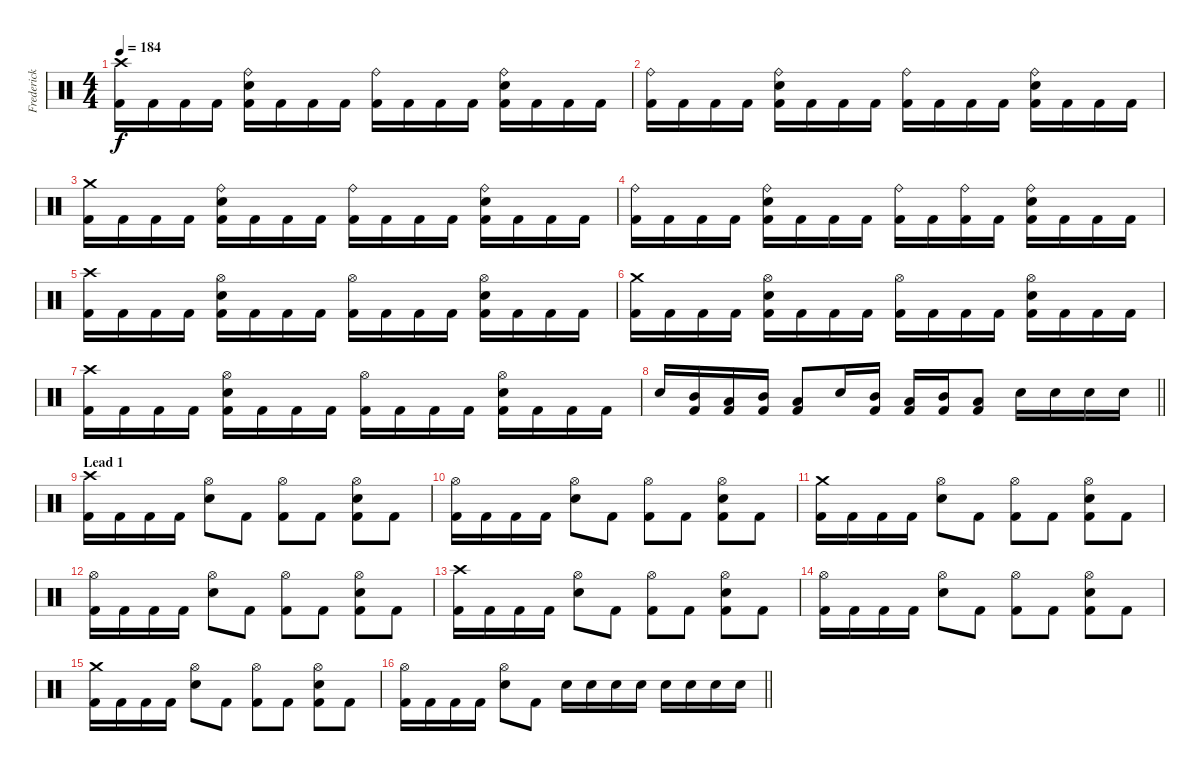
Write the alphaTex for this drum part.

\track ("Frederick Ehmke" "Frederick ") {instrument percussion}
\staff {score}
\articulation defaults
\ts (4 4)
\tempo 184
\clef neutral
\ks c
("Kick (hit) 2" "Crash high (hit)").16{dy f} "Kick (hit) 2".16 "Kick (hit) 2".16 "Kick (hit) 2".16 ("Electric Snare (hit)" "Kick (hit) 2" "Ride (bell)").16 "Kick (hit) 2".16 "Kick (hit) 2".16 "Kick (hit) 2".16 ("Kick (hit) 2" "Ride (bell)").16 "Kick (hit) 2".16 "Kick (hit) 2".16 "Kick (hit) 2".16 ("Electric Snare (hit)" "Kick (hit) 2" "Ride (bell)").16 "Kick (hit) 2".16 "Kick (hit) 2".16 "Kick (hit) 2".16 |
("Kick (hit) 2" "Ride (bell)").16 "Kick (hit) 2".16 "Kick (hit) 2".16 "Kick (hit) 2".16 ("Electric Snare (hit)" "Kick (hit) 2" "Ride (bell)").16 "Kick (hit) 2".16 "Kick (hit) 2".16 "Kick (hit) 2".16 ("Kick (hit) 2" "Ride (bell)").16 "Kick (hit) 2".16 "Kick (hit) 2".16 "Kick (hit) 2".16 ("Electric Snare (hit)" "Kick (hit) 2" "Ride (bell)").16 "Kick (hit) 2".16 "Kick (hit) 2".16 "Kick (hit) 2".16 |
("Kick (hit) 2" "Crash medium (hit)").16 "Kick (hit) 2".16 "Kick (hit) 2".16 "Kick (hit) 2".16 ("Electric Snare (hit)" "Kick (hit) 2" "Ride (bell)").16 "Kick (hit) 2".16 "Kick (hit) 2".16 "Kick (hit) 2".16 ("Kick (hit) 2" "Ride (bell)").16 "Kick (hit) 2".16 "Kick (hit) 2".16 "Kick (hit) 2".16 ("Electric Snare (hit)" "Kick (hit) 2" "Ride (bell)").16 "Kick (hit) 2".16 "Kick (hit) 2".16 "Kick (hit) 2".16 |
("Kick (hit) 2" "Ride (bell)").16 "Kick (hit) 2".16 "Kick (hit) 2".16 "Kick (hit) 2".16 ("Electric Snare (hit)" "Kick (hit) 2" "Ride (bell)").16 "Kick (hit) 2".16 "Kick (hit) 2".16 "Kick (hit) 2".16 ("Kick (hit) 2" "Ride (bell)").16 "Kick (hit) 2".16 ("Kick (hit) 2" "Ride (bell)").16 "Kick (hit) 2".16 ("Electric Snare (hit)" "Kick (hit) 2" "Ride (bell)").16 "Kick (hit) 2".16 "Kick (hit) 2".16 "Kick (hit) 2".16 |
("Kick (hit) 2" "Crash high (hit)").16 "Kick (hit) 2".16 "Kick (hit) 2".16 "Kick (hit) 2".16 ("Electric Snare (hit)" "Kick (hit) 2" "Hi-Hat (open)").16 "Kick (hit) 2".16 "Kick (hit) 2".16 "Kick (hit) 2".16 ("Kick (hit) 2" "Hi-Hat (open)").16 "Kick (hit) 2".16 "Kick (hit) 2".16 "Kick (hit) 2".16 ("Electric Snare (hit)" "Kick (hit) 2" "Hi-Hat (open)").16 "Kick (hit) 2".16 "Kick (hit) 2".16 "Kick (hit) 2".16 |
("Kick (hit) 2" "Crash medium (hit)").16 "Kick (hit) 2".16 "Kick (hit) 2".16 "Kick (hit) 2".16 ("Electric Snare (hit)" "Kick (hit) 2" "Hi-Hat (open)").16 "Kick (hit) 2".16 "Kick (hit) 2".16 "Kick (hit) 2".16 ("Kick (hit) 2" "Hi-Hat (open)").16 "Kick (hit) 2".16 "Kick (hit) 2".16 "Kick (hit) 2".16 ("Electric Snare (hit)" "Kick (hit) 2" "Hi-Hat (open)").16 "Kick (hit) 2".16 "Kick (hit) 2".16 "Kick (hit) 2".16 |
("Kick (hit) 2" "Crash high (hit)").16 "Kick (hit) 2".16 "Kick (hit) 2".16 "Kick (hit) 2".16 ("Electric Snare (hit)" "Kick (hit) 2" "Hi-Hat (open)").16 "Kick (hit) 2".16 "Kick (hit) 2".16 "Kick (hit) 2".16 ("Kick (hit) 2" "Hi-Hat (open)").16 "Kick (hit) 2".16 "Kick (hit) 2".16 "Kick (hit) 2".16 ("Electric Snare (hit)" "Kick (hit) 2" "Hi-Hat (open)").16 "Kick (hit) 2".16 "Kick (hit) 2".16 "Kick (hit) 2".16 |
\barLineRight lightlight "Electric Snare (hit)".16
("Kick (hit) 2" "Mid Tom (hit)").16 ("Kick (hit) 2" "Low Floor Tom (hit)").16 ("Kick (hit) 2" "Mid Tom (hit)").16 ("Kick (hit) 2" "Low Floor Tom (hit)").8 "Electric Snare (hit)".16 ("Kick (hit) 2" "Mid Tom (hit)").16 ("Kick (hit) 2" "Low Floor Tom (hit)").16 ("Kick (hit) 2" "Mid Tom (hit)").16 ("Kick (hit) 2" "Low Floor Tom (hit)").8 "Electric Snare (hit)".16 "Electric Snare (hit)".16 "Electric Snare (hit)".16 "Electric Snare (hit)".16 |
\section ("" "Lead 1")
("Kick (hit) 2" "Crash high (hit)").16 "Kick (hit) 2".16 "Kick (hit) 2".16 "Kick (hit) 2".16 ("Electric Snare (hit)" "Hi-Hat (open)").8 "Kick (hit) 2".8 ("Kick (hit) 2" "Hi-Hat (open)").8 "Kick (hit) 2".8 ("Electric Snare (hit)" "Kick (hit) 2" "Hi-Hat (open)").8 "Kick (hit) 2".8 |
("Kick (hit) 2" "Hi-Hat (open)").16 "Kick (hit) 2".16 "Kick (hit) 2".16 "Kick (hit) 2".16 ("Electric Snare (hit)" "Hi-Hat (open)").8 "Kick (hit) 2".8 ("Kick (hit) 2" "Hi-Hat (open)").8 "Kick (hit) 2".8 ("Electric Snare (hit)" "Kick (hit) 2" "Hi-Hat (open)").8 "Kick (hit) 2".8 |
("Kick (hit) 2" "Crash medium (hit)").16 "Kick (hit) 2".16 "Kick (hit) 2".16 "Kick (hit) 2".16 ("Electric Snare (hit)" "Hi-Hat (open)").8 "Kick (hit) 2".8 ("Kick (hit) 2" "Hi-Hat (open)").8 "Kick (hit) 2".8 ("Electric Snare (hit)" "Kick (hit) 2" "Hi-Hat (open)").8 "Kick (hit) 2".8 |
("Kick (hit) 2" "Hi-Hat (open)").16 "Kick (hit) 2".16 "Kick (hit) 2".16 "Kick (hit) 2".16 ("Electric Snare (hit)" "Hi-Hat (open)").8 "Kick (hit) 2".8 ("Kick (hit) 2" "Hi-Hat (open)").8 "Kick (hit) 2".8 ("Electric Snare (hit)" "Kick (hit) 2" "Hi-Hat (open)").8 "Kick (hit) 2".8 |
("Kick (hit) 2" "Crash high (hit)").16 "Kick (hit) 2".16 "Kick (hit) 2".16 "Kick (hit) 2".16 ("Electric Snare (hit)" "Hi-Hat (open)").8 "Kick (hit) 2".8 ("Kick (hit) 2" "Hi-Hat (open)").8 "Kick (hit) 2".8 ("Electric Snare (hit)" "Kick (hit) 2" "Hi-Hat (open)").8 "Kick (hit) 2".8 |
("Kick (hit) 2" "Hi-Hat (open)").16 "Kick (hit) 2".16 "Kick (hit) 2".16 "Kick (hit) 2".16 ("Electric Snare (hit)" "Hi-Hat (open)").8 "Kick (hit) 2".8 ("Kick (hit) 2" "Hi-Hat (open)").8 "Kick (hit) 2".8 ("Electric Snare (hit)" "Kick (hit) 2" "Hi-Hat (open)").8 "Kick (hit) 2".8 |
("Kick (hit) 2" "Crash medium (hit)").16 "Kick (hit) 2".16 "Kick (hit) 2".16 "Kick (hit) 2".16 ("Electric Snare (hit)" "Hi-Hat (open)").8 "Kick (hit) 2".8 ("Kick (hit) 2" "Hi-Hat (open)").8 "Kick (hit) 2".8 ("Electric Snare (hit)" "Kick (hit) 2" "Hi-Hat (open)").8 "Kick (hit) 2".8 |
\barLineRight lightlight
("Kick (hit) 2" "Hi-Hat (open)").16 "Kick (hit) 2".16 "Kick (hit) 2".16 "Kick (hit) 2".16 ("Electric Snare (hit)" "Hi-Hat (open)").8 "Kick (hit) 2".8 "Electric Snare (hit)".16 "Electric Snare (hit)".16 "Electric Snare (hit)".16 "Electric Snare (hit)".16 "Electric Snare (hit)".16 "Electric Snare (hit)".16 "Electric Snare (hit)".16 "Electric Snare (hit)".16
